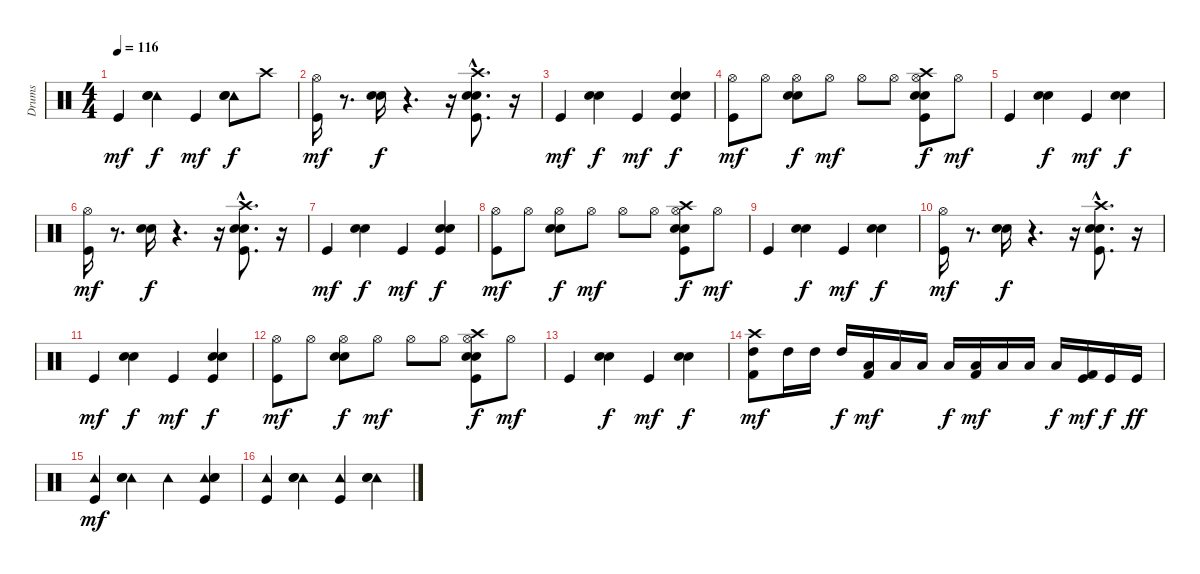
\track ("Drums" "Drums") {instrument percussion}
\staff {score}
\articulation defaults
\ts (4 4)
\tempo 116
\clef neutral
\ks c "Kick (hit)".4{dy mf}
("Tambourine (hit)" "Electric Snare (hit)" "Snare (hit) 2").4{dy f} "Kick (hit)".4{dy mf} ("Tambourine (hit)" "Electric Snare (hit)" "Snare (hit) 2").8{dy f} "Crash high (hit)".8 |
("Hi-Hat (open)" "Kick (hit)").16{dy mf} r.8{d} ("Electric Snare (hit)" "Snare (hit) 2").16{dy f} r.4{d} r.16 ("Crash high (hit)"{hac} "Electric Snare (hit)" "Snare (hit) 2" "Kick (hit)").8{d} r.16 |
"Kick (hit)".4{dy mf} ("Electric Snare (hit)" "Snare (hit) 2").4{dy f} "Kick (hit)".4{dy mf} ("Electric Snare (hit)" "Snare (hit) 2" "Kick (hit)").4{dy f} |
("Hi-Hat (open)" "Kick (hit)").8{dy mf} "Hi-Hat (open)".8 ("Hi-Hat (open)" "Electric Snare (hit)" "Snare (hit) 2").8{dy f} "Hi-Hat (open)".8{dy mf} "Hi-Hat (open)".8 "Hi-Hat (open)".8 ("Hi-Hat (open)" "Crash high (hit)" "Electric Snare (hit)" "Snare (hit) 2" "Kick (hit)").8{dy f} "Hi-Hat (open)".8{dy mf} |
"Kick (hit)".4 ("Electric Snare (hit)" "Snare (hit) 2").4{dy f} "Kick (hit)".4{dy mf} ("Electric Snare (hit)" "Snare (hit) 2").4{dy f} |
("Hi-Hat (open)" "Kick (hit)").16{dy mf} r.8{d} ("Electric Snare (hit)" "Snare (hit) 2").16{dy f} r.4{d} r.16 ("Crash high (hit)"{hac} "Electric Snare (hit)" "Snare (hit) 2" "Kick (hit)").8{d} r.16 |
"Kick (hit)".4{dy mf} ("Electric Snare (hit)" "Snare (hit) 2").4{dy f} "Kick (hit)".4{dy mf} ("Electric Snare (hit)" "Snare (hit) 2" "Kick (hit)").4{dy f} |
("Hi-Hat (open)" "Kick (hit)").8{dy mf} "Hi-Hat (open)".8 ("Hi-Hat (open)" "Electric Snare (hit)" "Snare (hit) 2").8{dy f} "Hi-Hat (open)".8{dy mf} "Hi-Hat (open)".8 "Hi-Hat (open)".8 ("Hi-Hat (open)" "Crash high (hit)" "Electric Snare (hit)" "Snare (hit) 2" "Kick (hit)").8{dy f} "Hi-Hat (open)".8{dy mf} |
"Kick (hit)".4 ("Electric Snare (hit)" "Snare (hit) 2").4{dy f} "Kick (hit)".4{dy mf} ("Electric Snare (hit)" "Snare (hit) 2").4{dy f} |
("Hi-Hat (open)" "Kick (hit)").16{dy mf} r.8{d} ("Electric Snare (hit)" "Snare (hit) 2").16{dy f} r.4{d} r.16 ("Crash high (hit)"{hac} "Electric Snare (hit)" "Snare (hit) 2" "Kick (hit)").8{d} r.16 |
"Kick (hit)".4{dy mf} ("Electric Snare (hit)" "Snare (hit) 2").4{dy f} "Kick (hit)".4{dy mf} ("Electric Snare (hit)" "Snare (hit) 2" "Kick (hit)").4{dy f} |
("Hi-Hat (open)" "Kick (hit)").8{dy mf} "Hi-Hat (open)".8 ("Hi-Hat (open)" "Electric Snare (hit)" "Snare (hit) 2").8{dy f} "Hi-Hat (open)".8{dy mf} "Hi-Hat (open)".8 "Hi-Hat (open)".8 ("Hi-Hat (open)" "Crash high (hit)" "Electric Snare (hit)" "Snare (hit) 2" "Kick (hit)").8{dy f} "Hi-Hat (open)".8{dy mf} |
"Kick (hit)".4 ("Electric Snare (hit)" "Snare (hit) 2").4{dy f} "Kick (hit)".4{dy mf} ("Electric Snare (hit)" "Snare (hit) 2").4{dy f} |
("High Tom (hit)" "Kick (hit) 2" "Crash high (hit)").8{dy mf} "High Tom (hit)".16 "High Tom (hit)".16 "High Tom (hit)".16{dy f} ("Low Tom (hit)" "Kick (hit) 2").16{dy mf} "Low Tom (hit)".16 "Low Tom (hit)".16 "Low Tom (hit)".16{dy f} ("Low Floor Tom (hit)" "Kick (hit) 2").16{dy mf} "Low Floor Tom (hit)".16 "Low Floor Tom (hit)".16 "Low Floor Tom (hit)".16{dy f} ("Kick (hit)" "Kick (hit) 2").16{dy mf} "Kick (hit)".16{dy f} "Kick (hit)".16{dy ff} |
("Tambourine (hit)" "Kick (hit)").4{dy mf} ("Tambourine (hit)" "Electric Snare (hit)" "Snare (hit) 2").4 "Tambourine (hit)".4 ("Tambourine (hit)" "Electric Snare (hit)" "Snare (hit) 2" "Kick (hit)").4 |
("Tambourine (hit)" "Kick (hit)").4 ("Tambourine (hit)" "Electric Snare (hit)" "Snare (hit) 2").4 ("Tambourine (hit)" "Kick (hit)").4 ("Tambourine (hit)" "Electric Snare (hit)" "Snare (hit) 2").4
